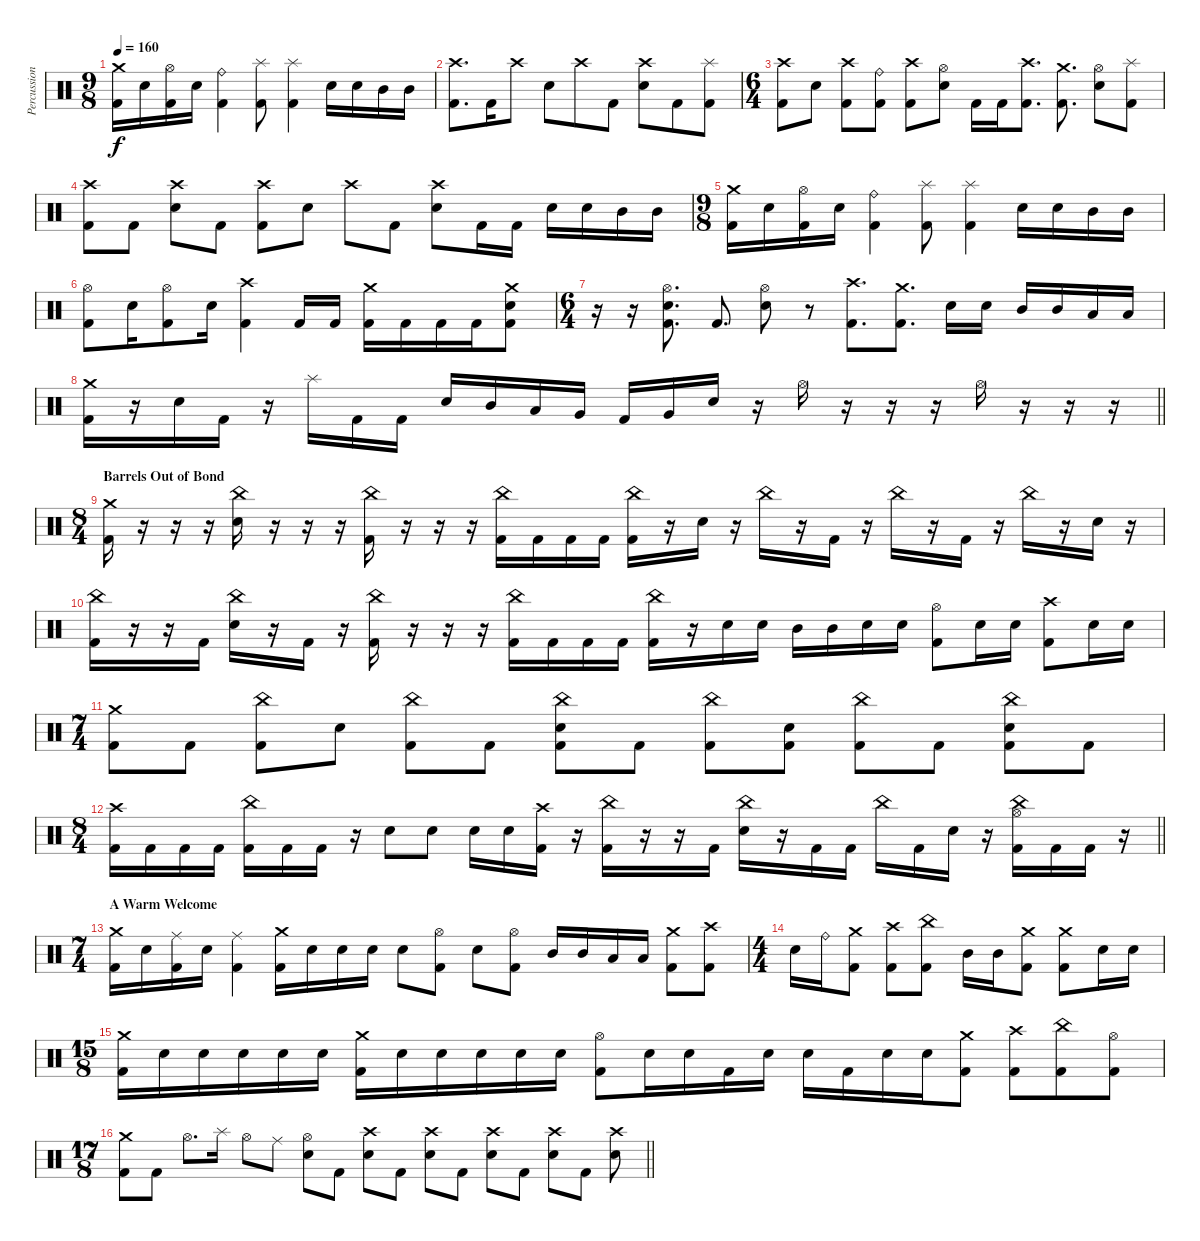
\track ("Percussion" "Percussion") {instrument percussion}
\staff {score}
\articulation defaults
\ts (9 8)
\tempo 160
\clef neutral
\ks c
("Kick (hit) 2" "Crash medium (hit)").16{dy f} "Electric Snare (hit)".16 ("Kick (hit) 2" "Hi-Hat (open)").16 "Electric Snare (hit)".16 ("Kick (hit) 2" "Ride (bell)").4 ("Kick (hit) 2" "Splash (hit)").8 ("Kick (hit) 2" "Splash (hit)").4 "Electric Snare (hit)".16 "Electric Snare (hit)".16 "Mid Tom (hit)".16 "Mid Tom (hit)".16 |
("Crash high (hit)" "Kick (hit) 2").8{d} "Kick (hit) 2".16 "Crash high (hit)".8 "Electric Snare (hit)".8 "Crash high (hit)".8 "Kick (hit) 2".8 ("Crash high (hit)" "Electric Snare (hit)").8 "Kick (hit) 2".8 ("Splash (hit)" "Kick (hit) 2").8 |
\ts (6 4)
("Crash high (hit)" "Kick (hit) 2").8 "Electric Snare (hit)".8 ("Crash high (hit)" "Kick (hit) 2").8 ("Ride (bell)" "Kick (hit) 2").8 ("Crash high (hit)" "Kick (hit) 2").8 ("Hi-Hat (open)" "Electric Snare (hit)").8 "Kick (hit) 2".16 "Kick (hit) 2".16 ("Crash high (hit)" "Kick (hit) 2").8{d} ("Crash medium (hit)" "Kick (hit) 2").8{d} ("Hi-Hat (open)" "Electric Snare (hit)").8 ("Splash (hit)" "Kick (hit) 2").8 |
("Kick (hit) 2" "Crash high (hit)").8 "Kick (hit) 2".8 ("Electric Snare (hit)" "Crash high (hit)").8 "Kick (hit) 2".8 ("Kick (hit) 2" "Crash high (hit)").8 "Electric Snare (hit)".8 "Crash high (hit)".8 "Kick (hit) 2".8 ("Electric Snare (hit)" "Crash high (hit)").8 "Kick (hit) 2".16 "Kick (hit) 2".16 "Electric Snare (hit)".16 "Electric Snare (hit)".16 "Mid Tom (hit)".16 "Mid Tom (hit)".16 |
\ts (9 8)
("Kick (hit) 2" "Crash medium (hit)").16 "Electric Snare (hit)".16 ("Kick (hit) 2" "Hi-Hat (open)").16 "Electric Snare (hit)".16 ("Kick (hit) 2" "Ride (bell)").4 ("Kick (hit) 2" "Splash (hit)").8 ("Kick (hit) 2" "Splash (hit)").4 "Electric Snare (hit)".16 "Electric Snare (hit)".16 "Mid Tom (hit)".16 "Mid Tom (hit)".16 |
("Kick (hit) 2" "Hi-Hat (open)").8 "Electric Snare (hit)".16 ("Kick (hit) 2" "Hi-Hat (open)").8 "Electric Snare (hit)".16 ("Kick (hit) 2" "Crash high (hit)").4 "Kick (hit) 2".16 "Kick (hit) 2".16 ("Kick (hit) 2" "Crash medium (hit)").16 "Kick (hit) 2".16 "Kick (hit) 2".16 "Kick (hit) 2".16 ("Kick (hit) 2" "Crash medium (hit)" "Electric Snare (hit)").8 |
\ts (6 4)
r.16 r.16 ("Hi-Hat (open)" "Electric Snare (hit)" "Kick (hit) 2").8{d} "Kick (hit) 2".8{d} ("Hi-Hat (open)" "Electric Snare (hit)").8 r.8 ("Crash high (hit)" "Kick (hit) 2").8{d} ("Crash medium (hit)" "Kick (hit) 2").8{d} "Electric Snare (hit)".16 "Electric Snare (hit)".16 "Mid Tom (hit)".16 "Mid Tom (hit)".16 "Low Tom (hit)".16 "Low Tom (hit)".16 |
\barLineRight lightlight
("Crash medium (hit)" "Kick (hit) 2").16 r.16 "Electric Snare (hit)".16 "Kick (hit) 2".16 r.16 "Splash (hit)".16 "Kick (hit) 2".16 "Kick (hit) 2".16 "Electric Snare (hit)".16 "Mid Tom (hit)".16 "Low Tom (hit)".16 "Very Low Tom (hit)".16 "Kick (hit) 2".16 "Very Low Tom (hit)".16 "Electric Snare (hit)".16 r.16 "Hi-Hat (open)".16 r.16 r.16 r.16 "Hi-Hat (open)".16 r.16 r.16 r.16 |
\ts (8 4)
\section ("" "Barrels Out of Bond")
("Crash medium (hit)" "Kick (hit) 2").16 r.16 r.16 r.16 ("China (hit)" "Electric Snare (hit)").16 r.16 r.16 r.16 ("China (hit)" "Kick (hit) 2").16 r.16 r.16 r.16 ("China (hit)" "Kick (hit) 2").16 "Kick (hit) 2".16 "Kick (hit) 2".16 "Kick (hit) 2".16 ("China (hit)" "Kick (hit) 2").16 r.16 "Electric Snare (hit)".16 r.16 "China (hit)".16 r.16 "Kick (hit) 2".16 r.16 "China (hit)".16 r.16 "Kick (hit) 2".16 r.16 "China (hit)".16 r.16 "Electric Snare (hit)".16 r.16 |
("China (hit)" "Kick (hit) 2").16 r.16 r.16 "Kick (hit) 2".16 ("China (hit)" "Electric Snare (hit)").16 r.16 "Kick (hit) 2".16 r.16 ("China (hit)" "Kick (hit) 2").16 r.16 r.16 r.16 ("China (hit)" "Kick (hit) 2").16 "Kick (hit) 2".16 "Kick (hit) 2".16 "Kick (hit) 2".16 ("China (hit)" "Kick (hit) 2").16 r.16 "Electric Snare (hit)".16 "Electric Snare (hit)".16 "Mid Tom (hit)".16 "Mid Tom (hit)".16 "Electric Snare (hit)".16 "Electric Snare (hit)".16 ("Kick (hit) 2" "Hi-Hat (open)").8 "Electric Snare (hit)".16 "Electric Snare (hit)".16 ("Kick (hit) 2" "Crash high (hit)").8 "Electric Snare (hit)".16 "Electric Snare (hit)".16 |
\ts (7 4)
("Crash medium (hit)" "Kick (hit) 2").8 "Kick (hit) 2".8 ("China (hit)" "Kick (hit) 2").8 "Electric Snare (hit)".8 ("China (hit)" "Kick (hit) 2").8 "Kick (hit) 2".8 ("China (hit)" "Electric Snare (hit)" "Kick (hit) 2").8 "Kick (hit) 2".8 ("China (hit)" "Kick (hit) 2").8 ("Electric Snare (hit)" "Kick (hit) 2").8 ("China (hit)" "Kick (hit) 2").8 "Kick (hit) 2".8 ("China (hit)" "Electric Snare (hit)" "Kick (hit) 2").8 "Kick (hit) 2".8 |
\ts (8 4)
\barLineRight lightlight
("Crash high (hit)" "Kick (hit) 2").16 "Kick (hit) 2".16 "Kick (hit) 2".16 "Kick (hit) 2".16 ("China (hit)" "Kick (hit) 2").16 "Kick (hit) 2".16 "Kick (hit) 2".16 r.16 "Electric Snare (hit)".8 "Electric Snare (hit)".8 "Electric Snare (hit)".16 "Electric Snare (hit)".16 ("Crash high (hit)" "Kick (hit) 2").16 r.16 ("China (hit)" "Kick (hit) 2").16 r.16 r.16 "Kick (hit) 2".16 ("China (hit)" "Electric Snare (hit)").16 r.16 "Kick (hit) 2".16 "Kick (hit) 2".16 "China (hit)".16 "Kick (hit) 2".16 "Electric Snare (hit)".16 r.16 ("Hi-Hat (open)" "China (hit)" "Kick (hit) 2").16 "Kick (hit) 2".16 "Kick (hit) 2".16 r.16 |
\ts (7 4)
\section ("" "A Warm Welcome")
("Kick (hit) 2" "Crash medium (hit)").16 "Electric Snare (hit)".16 ("Kick (hit) 2" "Ride (middle)").16 "Electric Snare (hit)".16 ("Kick (hit) 2" "Ride (middle)").4 ("Crash medium (hit)" "Kick (hit) 2").16 "Electric Snare (hit)".16 "Electric Snare (hit)".16 "Electric Snare (hit)".16 "Electric Snare (hit)".8 ("Hi-Hat (open)" "Kick (hit) 2").8 "Electric Snare (hit)".8 ("Hi-Hat (open)" "Kick (hit) 2").8 "Mid Tom (hit)".16 "Mid Tom (hit)".16 "Low Tom (hit)".16 "Low Tom (hit)".16 ("Kick (hit) 2" "Crash medium (hit)").8 ("Crash high (hit)" "Kick (hit) 2").8 |
\ts (4 4)
"Electric Snare (hit)".16 "Ride (bell)".16 ("Crash medium (hit)" "Kick (hit) 2").8 ("Crash high (hit)" "Kick (hit) 2").8 ("China (hit)" "Kick (hit) 2").8 "Mid Tom (hit)".16 "Mid Tom (hit)".16 ("Kick (hit) 2" "Crash medium (hit)").8 ("Crash medium (hit)" "Kick (hit) 2").8 "Electric Snare (hit)".16 "Electric Snare (hit)".16 |
\ts (15 8)
("Kick (hit) 2" "Crash medium (hit)").16 "Electric Snare (hit)".16 "Electric Snare (hit)".16 "Electric Snare (hit)".16 "Electric Snare (hit)".16 "Electric Snare (hit)".16 ("Kick (hit) 2" "Crash medium (hit)").16 "Electric Snare (hit)".16 "Electric Snare (hit)".16 "Electric Snare (hit)".16 "Electric Snare (hit)".16 "Electric Snare (hit)".16 ("Kick (hit) 2" "Hi-Hat (open)").8 "Electric Snare (hit)".16 "Electric Snare (hit)".16 "Kick (hit) 2".16 "Electric Snare (hit)".16 "Electric Snare (hit)".16 "Kick (hit) 2".16 "Electric Snare (hit)".16 "Electric Snare (hit)".16 ("Crash medium (hit)" "Kick (hit) 2").8 ("Crash high (hit)" "Kick (hit) 2").8 ("China (hit)" "Kick (hit) 2").8 ("Hi-Hat (open)" "Kick (hit) 2").8 |
\ts (17 8)
\barLineRight lightlight
("Kick (hit) 2" "Crash medium (hit)").8 "Kick (hit) 2".8 "Hi-Hat (open)".8{d} "Splash (hit)".16 "Hi-Hat (open)".8 "Ride (middle)".8 ("Hi-Hat (open)" "Electric Snare (hit)").8 "Kick (hit) 2".8 ("Electric Snare (hit)" "Crash high (hit)").8 "Kick (hit) 2".8 ("Electric Snare (hit)" "Crash high (hit)").8 "Kick (hit) 2".8 ("Electric Snare (hit)" "Crash high (hit)").8 "Kick (hit) 2".8 ("Electric Snare (hit)" "Crash high (hit)").8 "Kick (hit) 2".8 ("Electric Snare (hit)" "Crash high (hit)").8
